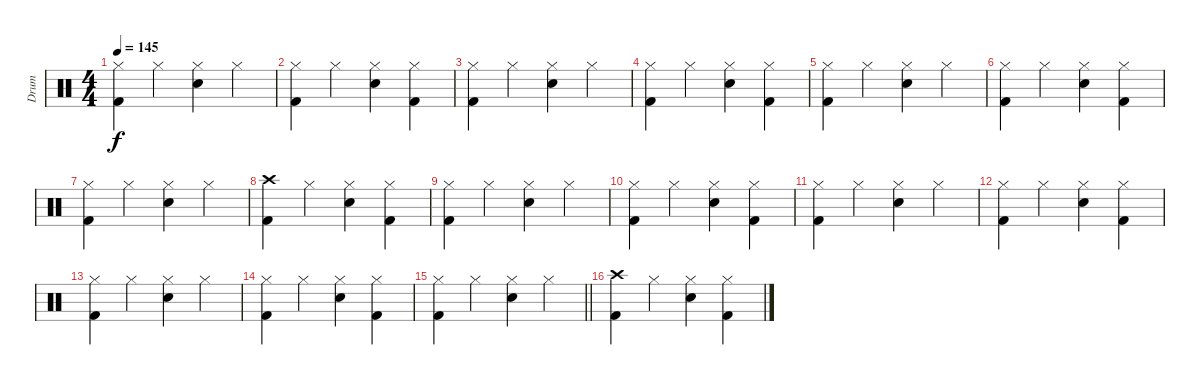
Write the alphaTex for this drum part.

\track ("Drum" "Drum") {instrument percussion}
\staff {score}
\articulation defaults
\ts (4 4)
\tempo 145
\clef neutral
\ks c
("Hi-Hat (closed)" "Kick (hit) 2").4{dy f} "Hi-Hat (closed)".4 ("Hi-Hat (closed)" "Snare (hit) 2").4 "Hi-Hat (closed)".4 |
("Hi-Hat (closed)" "Kick (hit) 2").4 "Hi-Hat (closed)".4 ("Hi-Hat (closed)" "Snare (hit) 2").4 ("Hi-Hat (closed)" "Kick (hit) 2").4 |
("Hi-Hat (closed)" "Kick (hit) 2").4 "Hi-Hat (closed)".4 ("Hi-Hat (closed)" "Snare (hit) 2").4 "Hi-Hat (closed)".4 |
("Hi-Hat (closed)" "Kick (hit) 2").4 "Hi-Hat (closed)".4 ("Hi-Hat (closed)" "Snare (hit) 2").4 ("Hi-Hat (closed)" "Kick (hit) 2").4 |
("Hi-Hat (closed)" "Kick (hit) 2").4 "Hi-Hat (closed)".4 ("Hi-Hat (closed)" "Snare (hit) 2").4 "Hi-Hat (closed)".4 |
("Hi-Hat (closed)" "Kick (hit) 2").4 "Hi-Hat (closed)".4 ("Hi-Hat (closed)" "Snare (hit) 2").4 ("Hi-Hat (closed)" "Kick (hit) 2").4 |
("Hi-Hat (closed)" "Kick (hit) 2").4 "Hi-Hat (closed)".4 ("Hi-Hat (closed)" "Snare (hit) 2").4 "Hi-Hat (closed)".4 |
("Crash high (hit)" "Kick (hit) 2").4 "Hi-Hat (closed)".4 ("Hi-Hat (closed)" "Snare (hit) 2").4 ("Hi-Hat (closed)" "Kick (hit) 2").4 |
("Hi-Hat (closed)" "Kick (hit) 2").4 "Hi-Hat (closed)".4 ("Hi-Hat (closed)" "Snare (hit) 2").4 "Hi-Hat (closed)".4 |
("Hi-Hat (closed)" "Kick (hit) 2").4 "Hi-Hat (closed)".4 ("Hi-Hat (closed)" "Snare (hit) 2").4 ("Hi-Hat (closed)" "Kick (hit) 2").4 |
("Hi-Hat (closed)" "Kick (hit) 2").4 "Hi-Hat (closed)".4 ("Hi-Hat (closed)" "Snare (hit) 2").4 "Hi-Hat (closed)".4 |
("Hi-Hat (closed)" "Kick (hit) 2").4 "Hi-Hat (closed)".4 ("Hi-Hat (closed)" "Snare (hit) 2").4 ("Hi-Hat (closed)" "Kick (hit) 2").4 |
("Hi-Hat (closed)" "Kick (hit) 2").4 "Hi-Hat (closed)".4 ("Hi-Hat (closed)" "Snare (hit) 2").4 "Hi-Hat (closed)".4 |
("Hi-Hat (closed)" "Kick (hit) 2").4 "Hi-Hat (closed)".4 ("Hi-Hat (closed)" "Snare (hit) 2").4 ("Hi-Hat (closed)" "Kick (hit) 2").4 |
\barLineRight lightlight
("Hi-Hat (closed)" "Kick (hit) 2").4 "Hi-Hat (closed)".4 ("Hi-Hat (closed)" "Snare (hit) 2").4 "Hi-Hat (closed)".4 |
("Crash high (hit)" "Kick (hit) 2").4 "Hi-Hat (closed)".4 ("Hi-Hat (closed)" "Snare (hit) 2").4 ("Hi-Hat (closed)" "Kick (hit) 2").4
